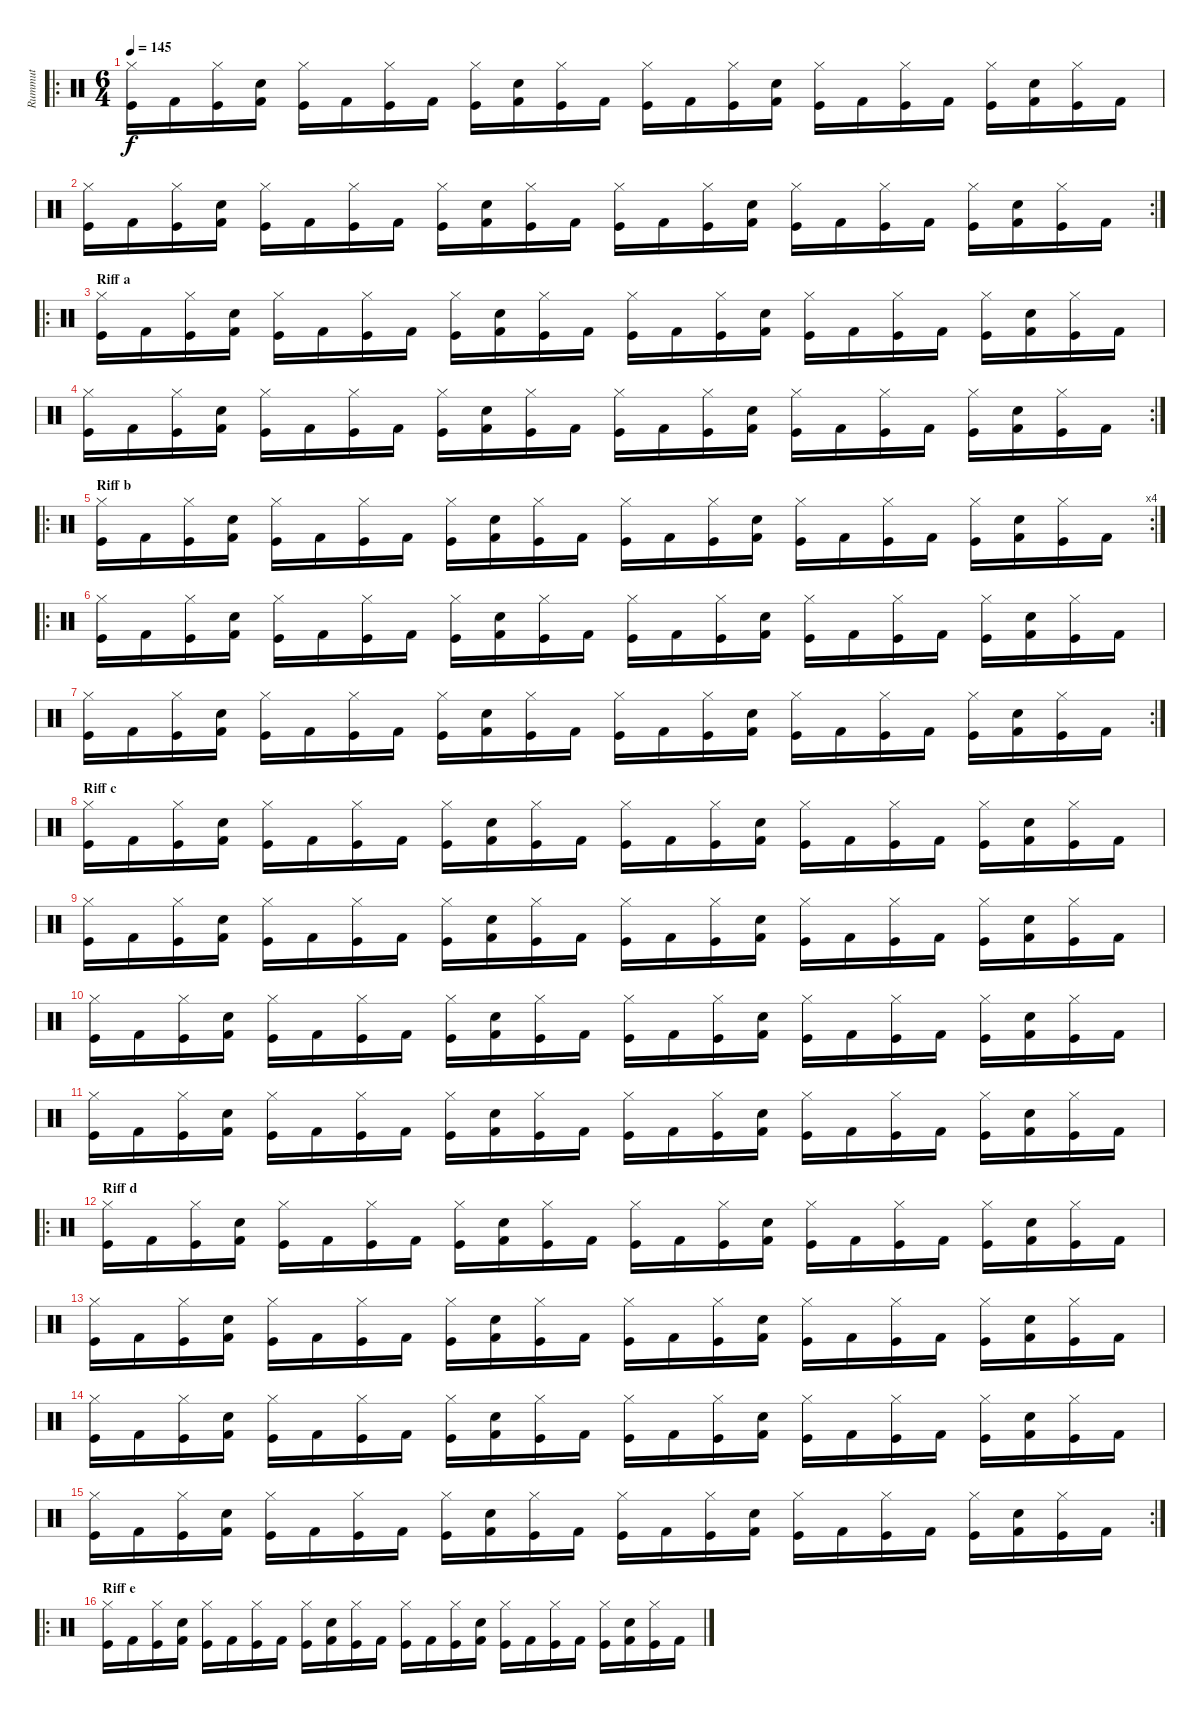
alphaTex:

\track ("Rummut" "Rummut") {instrument percussion}
\staff {score}
\articulation defaults
\ro
\ts (6 4)
\tempo 145
\clef neutral
\ks c
("Hi-Hat (closed)" "Kick (hit)").16{dy f} "Kick (hit) 2".16 ("Hi-Hat (closed)" "Kick (hit)").16 ("Snare (hit) 2" "Kick (hit) 2").16 ("Hi-Hat (closed)" "Kick (hit)").16 "Kick (hit) 2".16 ("Hi-Hat (closed)" "Kick (hit)").16 "Kick (hit) 2".16 ("Hi-Hat (closed)" "Kick (hit)").16 ("Snare (hit) 2" "Kick (hit) 2").16 ("Hi-Hat (closed)" "Kick (hit)").16 "Kick (hit) 2".16 ("Hi-Hat (closed)" "Kick (hit)").16 "Kick (hit) 2".16 ("Hi-Hat (closed)" "Kick (hit)").16 ("Snare (hit) 2" "Kick (hit) 2").16 ("Hi-Hat (closed)" "Kick (hit)").16 "Kick (hit) 2".16 ("Hi-Hat (closed)" "Kick (hit)").16 "Kick (hit) 2".16 ("Hi-Hat (closed)" "Kick (hit)").16 ("Snare (hit) 2" "Kick (hit) 2").16 ("Hi-Hat (closed)" "Kick (hit)").16 "Kick (hit) 2".16 |
\rc 2
("Hi-Hat (closed)" "Kick (hit)").16 "Kick (hit) 2".16 ("Hi-Hat (closed)" "Kick (hit)").16 ("Snare (hit) 2" "Kick (hit) 2").16 ("Hi-Hat (closed)" "Kick (hit)").16 "Kick (hit) 2".16 ("Hi-Hat (closed)" "Kick (hit)").16 "Kick (hit) 2".16 ("Hi-Hat (closed)" "Kick (hit)").16 ("Snare (hit) 2" "Kick (hit) 2").16 ("Hi-Hat (closed)" "Kick (hit)").16 "Kick (hit) 2".16 ("Hi-Hat (closed)" "Kick (hit)").16 "Kick (hit) 2".16 ("Hi-Hat (closed)" "Kick (hit)").16 ("Snare (hit) 2" "Kick (hit) 2").16 ("Hi-Hat (closed)" "Kick (hit)").16 "Kick (hit) 2".16 ("Hi-Hat (closed)" "Kick (hit)").16 "Kick (hit) 2".16 ("Hi-Hat (closed)" "Kick (hit)").16 ("Snare (hit) 2" "Kick (hit) 2").16 ("Hi-Hat (closed)" "Kick (hit)").16 "Kick (hit) 2".16 |
\ro
\section ("" "Riff a")
("Hi-Hat (closed)" "Kick (hit)").16 "Kick (hit) 2".16 ("Hi-Hat (closed)" "Kick (hit)").16 ("Snare (hit) 2" "Kick (hit) 2").16 ("Hi-Hat (closed)" "Kick (hit)").16 "Kick (hit) 2".16 ("Hi-Hat (closed)" "Kick (hit)").16 "Kick (hit) 2".16 ("Hi-Hat (closed)" "Kick (hit)").16 ("Snare (hit) 2" "Kick (hit) 2").16 ("Hi-Hat (closed)" "Kick (hit)").16 "Kick (hit) 2".16 ("Hi-Hat (closed)" "Kick (hit)").16 "Kick (hit) 2".16 ("Hi-Hat (closed)" "Kick (hit)").16 ("Snare (hit) 2" "Kick (hit) 2").16 ("Hi-Hat (closed)" "Kick (hit)").16 "Kick (hit) 2".16 ("Hi-Hat (closed)" "Kick (hit)").16 "Kick (hit) 2".16 ("Hi-Hat (closed)" "Kick (hit)").16 ("Snare (hit) 2" "Kick (hit) 2").16 ("Hi-Hat (closed)" "Kick (hit)").16 "Kick (hit) 2".16 |
\rc 2
("Hi-Hat (closed)" "Kick (hit)").16 "Kick (hit) 2".16 ("Hi-Hat (closed)" "Kick (hit)").16 ("Snare (hit) 2" "Kick (hit) 2").16 ("Hi-Hat (closed)" "Kick (hit)").16 "Kick (hit) 2".16 ("Hi-Hat (closed)" "Kick (hit)").16 "Kick (hit) 2".16 ("Hi-Hat (closed)" "Kick (hit)").16 ("Snare (hit) 2" "Kick (hit) 2").16 ("Hi-Hat (closed)" "Kick (hit)").16 "Kick (hit) 2".16 ("Hi-Hat (closed)" "Kick (hit)").16 "Kick (hit) 2".16 ("Hi-Hat (closed)" "Kick (hit)").16 ("Snare (hit) 2" "Kick (hit) 2").16 ("Hi-Hat (closed)" "Kick (hit)").16 "Kick (hit) 2".16 ("Hi-Hat (closed)" "Kick (hit)").16 "Kick (hit) 2".16 ("Hi-Hat (closed)" "Kick (hit)").16 ("Snare (hit) 2" "Kick (hit) 2").16 ("Hi-Hat (closed)" "Kick (hit)").16 "Kick (hit) 2".16 |
\ro
\rc 4
\section ("" "Riff b")
("Hi-Hat (closed)" "Kick (hit)").16 "Kick (hit) 2".16 ("Hi-Hat (closed)" "Kick (hit)").16 ("Snare (hit) 2" "Kick (hit) 2").16 ("Hi-Hat (closed)" "Kick (hit)").16 "Kick (hit) 2".16 ("Hi-Hat (closed)" "Kick (hit)").16 "Kick (hit) 2".16 ("Hi-Hat (closed)" "Kick (hit)").16 ("Snare (hit) 2" "Kick (hit) 2").16 ("Hi-Hat (closed)" "Kick (hit)").16 "Kick (hit) 2".16 ("Hi-Hat (closed)" "Kick (hit)").16 "Kick (hit) 2".16 ("Hi-Hat (closed)" "Kick (hit)").16 ("Snare (hit) 2" "Kick (hit) 2").16 ("Hi-Hat (closed)" "Kick (hit)").16 "Kick (hit) 2".16 ("Hi-Hat (closed)" "Kick (hit)").16 "Kick (hit) 2".16 ("Hi-Hat (closed)" "Kick (hit)").16 ("Snare (hit) 2" "Kick (hit) 2").16 ("Hi-Hat (closed)" "Kick (hit)").16 "Kick (hit) 2".16 |
\ro
("Hi-Hat (closed)" "Kick (hit)").16 "Kick (hit) 2".16 ("Hi-Hat (closed)" "Kick (hit)").16 ("Snare (hit) 2" "Kick (hit) 2").16 ("Hi-Hat (closed)" "Kick (hit)").16 "Kick (hit) 2".16 ("Hi-Hat (closed)" "Kick (hit)").16 "Kick (hit) 2".16 ("Hi-Hat (closed)" "Kick (hit)").16 ("Snare (hit) 2" "Kick (hit) 2").16 ("Hi-Hat (closed)" "Kick (hit)").16 "Kick (hit) 2".16 ("Hi-Hat (closed)" "Kick (hit)").16 "Kick (hit) 2".16 ("Hi-Hat (closed)" "Kick (hit)").16 ("Snare (hit) 2" "Kick (hit) 2").16 ("Hi-Hat (closed)" "Kick (hit)").16 "Kick (hit) 2".16 ("Hi-Hat (closed)" "Kick (hit)").16 "Kick (hit) 2".16 ("Hi-Hat (closed)" "Kick (hit)").16 ("Snare (hit) 2" "Kick (hit) 2").16 ("Hi-Hat (closed)" "Kick (hit)").16 "Kick (hit) 2".16 |
\rc 2
("Hi-Hat (closed)" "Kick (hit)").16 "Kick (hit) 2".16 ("Hi-Hat (closed)" "Kick (hit)").16 ("Snare (hit) 2" "Kick (hit) 2").16 ("Hi-Hat (closed)" "Kick (hit)").16 "Kick (hit) 2".16 ("Hi-Hat (closed)" "Kick (hit)").16 "Kick (hit) 2".16 ("Hi-Hat (closed)" "Kick (hit)").16 ("Snare (hit) 2" "Kick (hit) 2").16 ("Hi-Hat (closed)" "Kick (hit)").16 "Kick (hit) 2".16 ("Hi-Hat (closed)" "Kick (hit)").16 "Kick (hit) 2".16 ("Hi-Hat (closed)" "Kick (hit)").16 ("Snare (hit) 2" "Kick (hit) 2").16 ("Hi-Hat (closed)" "Kick (hit)").16 "Kick (hit) 2".16 ("Hi-Hat (closed)" "Kick (hit)").16 "Kick (hit) 2".16 ("Hi-Hat (closed)" "Kick (hit)").16 ("Snare (hit) 2" "Kick (hit) 2").16 ("Hi-Hat (closed)" "Kick (hit)").16 "Kick (hit) 2".16 |
\section ("" "Riff c")
("Hi-Hat (closed)" "Kick (hit)").16 "Kick (hit) 2".16 ("Hi-Hat (closed)" "Kick (hit)").16 ("Snare (hit) 2" "Kick (hit) 2").16 ("Hi-Hat (closed)" "Kick (hit)").16 "Kick (hit) 2".16 ("Hi-Hat (closed)" "Kick (hit)").16 "Kick (hit) 2".16 ("Hi-Hat (closed)" "Kick (hit)").16 ("Snare (hit) 2" "Kick (hit) 2").16 ("Hi-Hat (closed)" "Kick (hit)").16 "Kick (hit) 2".16 ("Hi-Hat (closed)" "Kick (hit)").16 "Kick (hit) 2".16 ("Hi-Hat (closed)" "Kick (hit)").16 ("Snare (hit) 2" "Kick (hit) 2").16 ("Hi-Hat (closed)" "Kick (hit)").16 "Kick (hit) 2".16 ("Hi-Hat (closed)" "Kick (hit)").16 "Kick (hit) 2".16 ("Hi-Hat (closed)" "Kick (hit)").16 ("Snare (hit) 2" "Kick (hit) 2").16 ("Hi-Hat (closed)" "Kick (hit)").16 "Kick (hit) 2".16 |
("Hi-Hat (closed)" "Kick (hit)").16 "Kick (hit) 2".16 ("Hi-Hat (closed)" "Kick (hit)").16 ("Snare (hit) 2" "Kick (hit) 2").16 ("Hi-Hat (closed)" "Kick (hit)").16 "Kick (hit) 2".16 ("Hi-Hat (closed)" "Kick (hit)").16 "Kick (hit) 2".16 ("Hi-Hat (closed)" "Kick (hit)").16 ("Snare (hit) 2" "Kick (hit) 2").16 ("Hi-Hat (closed)" "Kick (hit)").16 "Kick (hit) 2".16 ("Hi-Hat (closed)" "Kick (hit)").16 "Kick (hit) 2".16 ("Hi-Hat (closed)" "Kick (hit)").16 ("Snare (hit) 2" "Kick (hit) 2").16 ("Hi-Hat (closed)" "Kick (hit)").16 "Kick (hit) 2".16 ("Hi-Hat (closed)" "Kick (hit)").16 "Kick (hit) 2".16 ("Hi-Hat (closed)" "Kick (hit)").16 ("Snare (hit) 2" "Kick (hit) 2").16 ("Hi-Hat (closed)" "Kick (hit)").16 "Kick (hit) 2".16 |
("Hi-Hat (closed)" "Kick (hit)").16 "Kick (hit) 2".16 ("Hi-Hat (closed)" "Kick (hit)").16 ("Snare (hit) 2" "Kick (hit) 2").16 ("Hi-Hat (closed)" "Kick (hit)").16 "Kick (hit) 2".16 ("Hi-Hat (closed)" "Kick (hit)").16 "Kick (hit) 2".16 ("Hi-Hat (closed)" "Kick (hit)").16 ("Snare (hit) 2" "Kick (hit) 2").16 ("Hi-Hat (closed)" "Kick (hit)").16 "Kick (hit) 2".16 ("Hi-Hat (closed)" "Kick (hit)").16 "Kick (hit) 2".16 ("Hi-Hat (closed)" "Kick (hit)").16 ("Snare (hit) 2" "Kick (hit) 2").16 ("Hi-Hat (closed)" "Kick (hit)").16 "Kick (hit) 2".16 ("Hi-Hat (closed)" "Kick (hit)").16 "Kick (hit) 2".16 ("Hi-Hat (closed)" "Kick (hit)").16 ("Snare (hit) 2" "Kick (hit) 2").16 ("Hi-Hat (closed)" "Kick (hit)").16 "Kick (hit) 2".16 |
("Hi-Hat (closed)" "Kick (hit)").16 "Kick (hit) 2".16 ("Hi-Hat (closed)" "Kick (hit)").16 ("Snare (hit) 2" "Kick (hit) 2").16 ("Hi-Hat (closed)" "Kick (hit)").16 "Kick (hit) 2".16 ("Hi-Hat (closed)" "Kick (hit)").16 "Kick (hit) 2".16 ("Hi-Hat (closed)" "Kick (hit)").16 ("Snare (hit) 2" "Kick (hit) 2").16 ("Hi-Hat (closed)" "Kick (hit)").16 "Kick (hit) 2".16 ("Hi-Hat (closed)" "Kick (hit)").16 "Kick (hit) 2".16 ("Hi-Hat (closed)" "Kick (hit)").16 ("Snare (hit) 2" "Kick (hit) 2").16 ("Hi-Hat (closed)" "Kick (hit)").16 "Kick (hit) 2".16 ("Hi-Hat (closed)" "Kick (hit)").16 "Kick (hit) 2".16 ("Hi-Hat (closed)" "Kick (hit)").16 ("Snare (hit) 2" "Kick (hit) 2").16 ("Hi-Hat (closed)" "Kick (hit)").16 "Kick (hit) 2".16 |
\ro
\section ("" "Riff d")
("Hi-Hat (closed)" "Kick (hit)").16 "Kick (hit) 2".16 ("Hi-Hat (closed)" "Kick (hit)").16 ("Snare (hit) 2" "Kick (hit) 2").16 ("Hi-Hat (closed)" "Kick (hit)").16 "Kick (hit) 2".16 ("Hi-Hat (closed)" "Kick (hit)").16 "Kick (hit) 2".16 ("Hi-Hat (closed)" "Kick (hit)").16 ("Snare (hit) 2" "Kick (hit) 2").16 ("Hi-Hat (closed)" "Kick (hit)").16 "Kick (hit) 2".16 ("Hi-Hat (closed)" "Kick (hit)").16 "Kick (hit) 2".16 ("Hi-Hat (closed)" "Kick (hit)").16 ("Snare (hit) 2" "Kick (hit) 2").16 ("Hi-Hat (closed)" "Kick (hit)").16 "Kick (hit) 2".16 ("Hi-Hat (closed)" "Kick (hit)").16 "Kick (hit) 2".16 ("Hi-Hat (closed)" "Kick (hit)").16 ("Snare (hit) 2" "Kick (hit) 2").16 ("Hi-Hat (closed)" "Kick (hit)").16 "Kick (hit) 2".16 |
("Hi-Hat (closed)" "Kick (hit)").16 "Kick (hit) 2".16 ("Hi-Hat (closed)" "Kick (hit)").16 ("Snare (hit) 2" "Kick (hit) 2").16 ("Hi-Hat (closed)" "Kick (hit)").16 "Kick (hit) 2".16 ("Hi-Hat (closed)" "Kick (hit)").16 "Kick (hit) 2".16 ("Hi-Hat (closed)" "Kick (hit)").16 ("Snare (hit) 2" "Kick (hit) 2").16 ("Hi-Hat (closed)" "Kick (hit)").16 "Kick (hit) 2".16 ("Hi-Hat (closed)" "Kick (hit)").16 "Kick (hit) 2".16 ("Hi-Hat (closed)" "Kick (hit)").16 ("Snare (hit) 2" "Kick (hit) 2").16 ("Hi-Hat (closed)" "Kick (hit)").16 "Kick (hit) 2".16 ("Hi-Hat (closed)" "Kick (hit)").16 "Kick (hit) 2".16 ("Hi-Hat (closed)" "Kick (hit)").16 ("Snare (hit) 2" "Kick (hit) 2").16 ("Hi-Hat (closed)" "Kick (hit)").16 "Kick (hit) 2".16 |
("Hi-Hat (closed)" "Kick (hit)").16 "Kick (hit) 2".16 ("Hi-Hat (closed)" "Kick (hit)").16 ("Snare (hit) 2" "Kick (hit) 2").16 ("Hi-Hat (closed)" "Kick (hit)").16 "Kick (hit) 2".16 ("Hi-Hat (closed)" "Kick (hit)").16 "Kick (hit) 2".16 ("Hi-Hat (closed)" "Kick (hit)").16 ("Snare (hit) 2" "Kick (hit) 2").16 ("Hi-Hat (closed)" "Kick (hit)").16 "Kick (hit) 2".16 ("Hi-Hat (closed)" "Kick (hit)").16 "Kick (hit) 2".16 ("Hi-Hat (closed)" "Kick (hit)").16 ("Snare (hit) 2" "Kick (hit) 2").16 ("Hi-Hat (closed)" "Kick (hit)").16 "Kick (hit) 2".16 ("Hi-Hat (closed)" "Kick (hit)").16 "Kick (hit) 2".16 ("Hi-Hat (closed)" "Kick (hit)").16 ("Snare (hit) 2" "Kick (hit) 2").16 ("Hi-Hat (closed)" "Kick (hit)").16 "Kick (hit) 2".16 |
\rc 2
("Hi-Hat (closed)" "Kick (hit)").16 "Kick (hit) 2".16 ("Hi-Hat (closed)" "Kick (hit)").16 ("Snare (hit) 2" "Kick (hit) 2").16 ("Hi-Hat (closed)" "Kick (hit)").16 "Kick (hit) 2".16 ("Hi-Hat (closed)" "Kick (hit)").16 "Kick (hit) 2".16 ("Hi-Hat (closed)" "Kick (hit)").16 ("Snare (hit) 2" "Kick (hit) 2").16 ("Hi-Hat (closed)" "Kick (hit)").16 "Kick (hit) 2".16 ("Hi-Hat (closed)" "Kick (hit)").16 "Kick (hit) 2".16 ("Hi-Hat (closed)" "Kick (hit)").16 ("Snare (hit) 2" "Kick (hit) 2").16 ("Hi-Hat (closed)" "Kick (hit)").16 "Kick (hit) 2".16 ("Hi-Hat (closed)" "Kick (hit)").16 "Kick (hit) 2".16 ("Hi-Hat (closed)" "Kick (hit)").16 ("Snare (hit) 2" "Kick (hit) 2").16 ("Hi-Hat (closed)" "Kick (hit)").16 "Kick (hit) 2".16 |
\ro
\section ("" "Riff e")
("Hi-Hat (closed)" "Kick (hit)").16 "Kick (hit) 2".16 ("Hi-Hat (closed)" "Kick (hit)").16 ("Snare (hit) 2" "Kick (hit) 2").16 ("Hi-Hat (closed)" "Kick (hit)").16 "Kick (hit) 2".16 ("Hi-Hat (closed)" "Kick (hit)").16 "Kick (hit) 2".16 ("Hi-Hat (closed)" "Kick (hit)").16 ("Snare (hit) 2" "Kick (hit) 2").16 ("Hi-Hat (closed)" "Kick (hit)").16 "Kick (hit) 2".16 ("Hi-Hat (closed)" "Kick (hit)").16 "Kick (hit) 2".16 ("Hi-Hat (closed)" "Kick (hit)").16 ("Snare (hit) 2" "Kick (hit) 2").16 ("Hi-Hat (closed)" "Kick (hit)").16 "Kick (hit) 2".16 ("Hi-Hat (closed)" "Kick (hit)").16 "Kick (hit) 2".16 ("Hi-Hat (closed)" "Kick (hit)").16 ("Snare (hit) 2" "Kick (hit) 2").16 ("Hi-Hat (closed)" "Kick (hit)").16 "Kick (hit) 2".16
